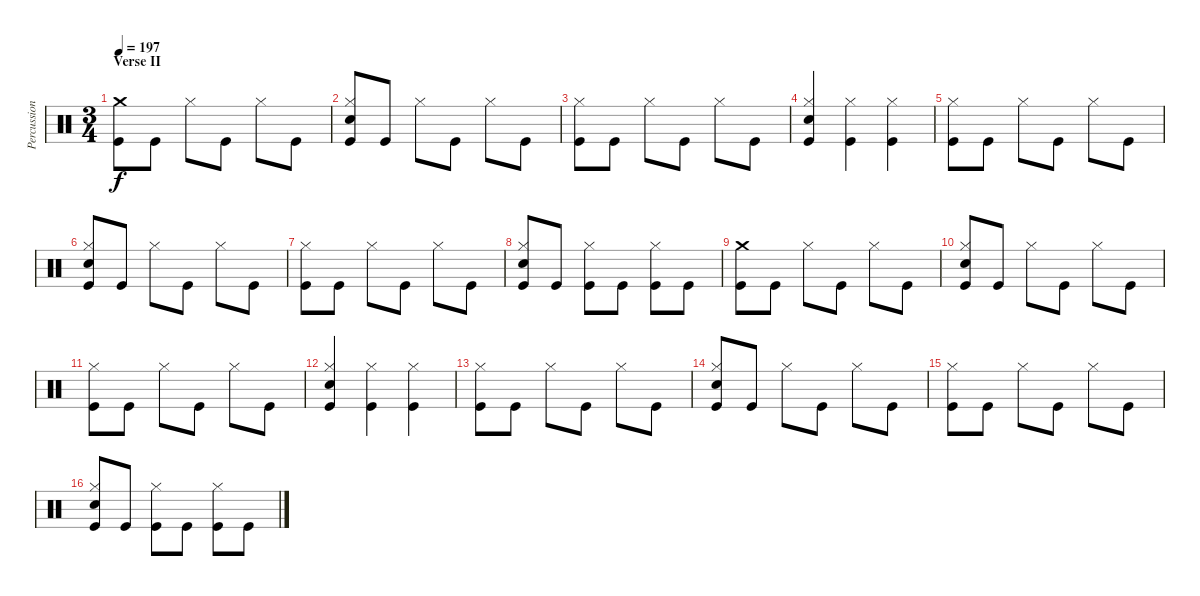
\track ("Percussion" "Percussion") {instrument percussion}
\staff {score}
\articulation defaults
\ts (3 4)
\section ("" "Verse II")
\tempo 197
\clef neutral
\ks c
("Crash medium (hit)" "Kick (hit)").8{dy f} "Kick (hit)".8 "Hi-Hat (closed)".8 "Kick (hit)".8 "Hi-Hat (closed)".8 "Kick (hit)".8 |
("Hi-Hat (closed)" "Electric Snare (hit)" "Kick (hit)").8 "Kick (hit)".8 "Hi-Hat (closed)".8 "Kick (hit)".8 "Hi-Hat (closed)".8 "Kick (hit)".8 |
("Hi-Hat (closed)" "Kick (hit)").8 "Kick (hit)".8 "Hi-Hat (closed)".8 "Kick (hit)".8 "Hi-Hat (closed)".8 "Kick (hit)".8 |
("Hi-Hat (closed)" "Electric Snare (hit)" "Kick (hit)").4 ("Hi-Hat (closed)" "Kick (hit)").4 ("Hi-Hat (closed)" "Kick (hit)").4 |
("Hi-Hat (closed)" "Kick (hit)").8 "Kick (hit)".8 "Hi-Hat (closed)".8 "Kick (hit)".8 "Hi-Hat (closed)".8 "Kick (hit)".8 |
("Hi-Hat (closed)" "Electric Snare (hit)" "Kick (hit)").8 "Kick (hit)".8 "Hi-Hat (closed)".8 "Kick (hit)".8 "Hi-Hat (closed)".8 "Kick (hit)".8 |
("Hi-Hat (closed)" "Kick (hit)").8 "Kick (hit)".8 "Hi-Hat (closed)".8 "Kick (hit)".8 "Hi-Hat (closed)".8 "Kick (hit)".8 |
("Hi-Hat (closed)" "Electric Snare (hit)" "Kick (hit)").8 "Kick (hit)".8 ("Hi-Hat (closed)" "Kick (hit)").8 "Kick (hit)".8 ("Hi-Hat (closed)" "Kick (hit)").8 "Kick (hit)".8 |
("Crash medium (hit)" "Kick (hit)").8 "Kick (hit)".8 "Hi-Hat (closed)".8 "Kick (hit)".8 "Hi-Hat (closed)".8 "Kick (hit)".8 |
("Hi-Hat (closed)" "Electric Snare (hit)" "Kick (hit)").8 "Kick (hit)".8 "Hi-Hat (closed)".8 "Kick (hit)".8 "Hi-Hat (closed)".8 "Kick (hit)".8 |
("Hi-Hat (closed)" "Kick (hit)").8 "Kick (hit)".8 "Hi-Hat (closed)".8 "Kick (hit)".8 "Hi-Hat (closed)".8 "Kick (hit)".8 |
("Hi-Hat (closed)" "Electric Snare (hit)" "Kick (hit)").4 ("Hi-Hat (closed)" "Kick (hit)").4 ("Hi-Hat (closed)" "Kick (hit)").4 |
("Hi-Hat (closed)" "Kick (hit)").8 "Kick (hit)".8 "Hi-Hat (closed)".8 "Kick (hit)".8 "Hi-Hat (closed)".8 "Kick (hit)".8 |
("Hi-Hat (closed)" "Electric Snare (hit)" "Kick (hit)").8 "Kick (hit)".8 "Hi-Hat (closed)".8 "Kick (hit)".8 "Hi-Hat (closed)".8 "Kick (hit)".8 |
("Hi-Hat (closed)" "Kick (hit)").8 "Kick (hit)".8 "Hi-Hat (closed)".8 "Kick (hit)".8 "Hi-Hat (closed)".8 "Kick (hit)".8 |
("Hi-Hat (closed)" "Electric Snare (hit)" "Kick (hit)").8 "Kick (hit)".8 ("Hi-Hat (closed)" "Kick (hit)").8 "Kick (hit)".8 ("Hi-Hat (closed)" "Kick (hit)").8 "Kick (hit)".8
